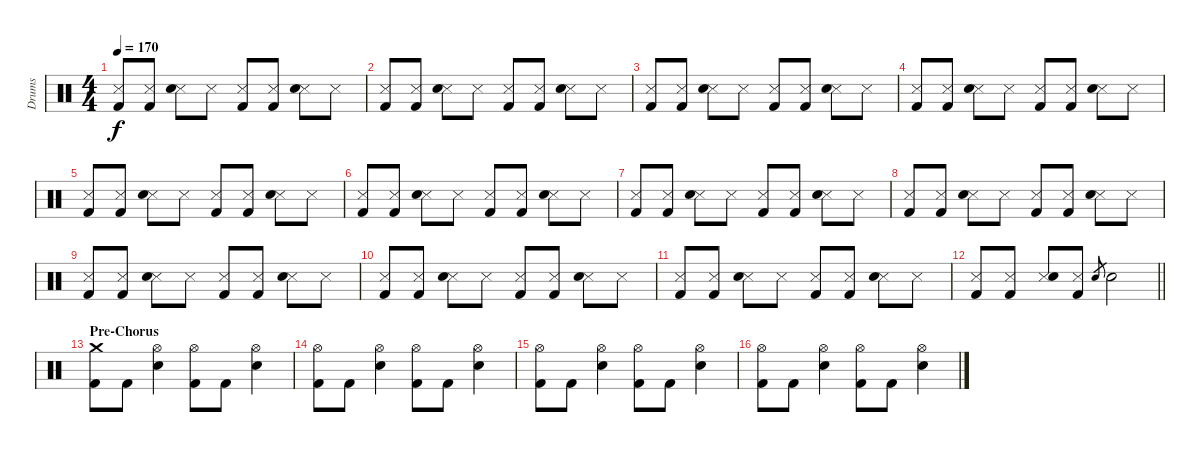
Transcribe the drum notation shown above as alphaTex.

\track ("Drums" "Drums") {instrument percussion}
\staff {score}
\articulation defaults
\ts (4 4)
\tempo 170
\clef neutral
\ks c
("Metronome (hit)" "Kick (hit) 2").8{dy f} ("Metronome (hit)" "Kick (hit) 2").8 ("Metronome (hit)" "Electric Snare (hit)").8 "Metronome (hit)".8 ("Metronome (hit)" "Kick (hit) 2").8 ("Metronome (hit)" "Kick (hit) 2").8 ("Metronome (hit)" "Electric Snare (hit)").8 "Metronome (hit)".8 |
("Metronome (hit)" "Kick (hit) 2").8 ("Metronome (hit)" "Kick (hit) 2").8 ("Metronome (hit)" "Electric Snare (hit)").8 "Metronome (hit)".8 ("Metronome (hit)" "Kick (hit) 2").8 ("Metronome (hit)" "Kick (hit) 2").8 ("Metronome (hit)" "Electric Snare (hit)").8 "Metronome (hit)".8 |
("Metronome (hit)" "Kick (hit) 2").8 ("Metronome (hit)" "Kick (hit) 2").8 ("Metronome (hit)" "Electric Snare (hit)").8 "Metronome (hit)".8 ("Metronome (hit)" "Kick (hit) 2").8 ("Metronome (hit)" "Kick (hit) 2").8 ("Metronome (hit)" "Electric Snare (hit)").8 "Metronome (hit)".8 |
("Metronome (hit)" "Kick (hit) 2").8 ("Metronome (hit)" "Kick (hit) 2").8 ("Metronome (hit)" "Electric Snare (hit)").8 "Metronome (hit)".8 ("Metronome (hit)" "Kick (hit) 2").8 ("Metronome (hit)" "Kick (hit) 2").8 ("Metronome (hit)" "Electric Snare (hit)").8 "Metronome (hit)".8 |
("Metronome (hit)" "Kick (hit) 2").8 ("Metronome (hit)" "Kick (hit) 2").8 ("Metronome (hit)" "Electric Snare (hit)").8 "Metronome (hit)".8 ("Metronome (hit)" "Kick (hit) 2").8 ("Metronome (hit)" "Kick (hit) 2").8 ("Metronome (hit)" "Electric Snare (hit)").8 "Metronome (hit)".8 |
("Metronome (hit)" "Kick (hit) 2").8 ("Metronome (hit)" "Kick (hit) 2").8 ("Metronome (hit)" "Electric Snare (hit)").8 "Metronome (hit)".8 ("Metronome (hit)" "Kick (hit) 2").8 ("Metronome (hit)" "Kick (hit) 2").8 ("Metronome (hit)" "Electric Snare (hit)").8 "Metronome (hit)".8 |
("Metronome (hit)" "Kick (hit) 2").8 ("Metronome (hit)" "Kick (hit) 2").8 ("Metronome (hit)" "Electric Snare (hit)").8 "Metronome (hit)".8 ("Metronome (hit)" "Kick (hit) 2").8 ("Metronome (hit)" "Kick (hit) 2").8 ("Metronome (hit)" "Electric Snare (hit)").8 "Metronome (hit)".8 |
("Metronome (hit)" "Kick (hit) 2").8 ("Metronome (hit)" "Kick (hit) 2").8 ("Metronome (hit)" "Electric Snare (hit)").8 "Metronome (hit)".8 ("Metronome (hit)" "Kick (hit) 2").8 ("Metronome (hit)" "Kick (hit) 2").8 ("Metronome (hit)" "Electric Snare (hit)").8 "Metronome (hit)".8 |
("Metronome (hit)" "Kick (hit) 2").8 ("Metronome (hit)" "Kick (hit) 2").8 ("Metronome (hit)" "Electric Snare (hit)").8 "Metronome (hit)".8 ("Metronome (hit)" "Kick (hit) 2").8 ("Metronome (hit)" "Kick (hit) 2").8 ("Metronome (hit)" "Electric Snare (hit)").8 "Metronome (hit)".8 |
("Metronome (hit)" "Kick (hit) 2").8 ("Metronome (hit)" "Kick (hit) 2").8 ("Metronome (hit)" "Electric Snare (hit)").8 "Metronome (hit)".8 ("Metronome (hit)" "Kick (hit) 2").8 ("Metronome (hit)" "Kick (hit) 2").8 ("Metronome (hit)" "Electric Snare (hit)").8 "Metronome (hit)".8 |
("Metronome (hit)" "Kick (hit) 2").8 ("Metronome (hit)" "Kick (hit) 2").8 ("Metronome (hit)" "Electric Snare (hit)").8 "Metronome (hit)".8 ("Metronome (hit)" "Kick (hit) 2").8 ("Metronome (hit)" "Kick (hit) 2").8 ("Metronome (hit)" "Electric Snare (hit)").8 "Metronome (hit)".8 |
\barLineRight lightlight
("Metronome (hit)" "Kick (hit) 2").8 ("Metronome (hit)" "Kick (hit) 2").8 ("Metronome (hit)" "Electric Snare (hit)").8 ("Metronome (hit)" "Kick (hit) 2").8 "Electric Snare (hit)".8{gr} "Electric Snare (hit)".2 |
\section ("" "Pre-Chorus")
("Crash medium (hit)" "Kick (hit) 2").8 "Kick (hit) 2".8 ("Hi-Hat (open)" "Electric Snare (hit)").4 ("Hi-Hat (open)" "Kick (hit) 2").8 "Kick (hit) 2".8 ("Hi-Hat (open)" "Electric Snare (hit)").4 |
("Hi-Hat (open)" "Kick (hit) 2").8 "Kick (hit) 2".8 ("Hi-Hat (open)" "Electric Snare (hit)").4 ("Hi-Hat (open)" "Kick (hit) 2").8 "Kick (hit) 2".8 ("Hi-Hat (open)" "Electric Snare (hit)").4 |
("Hi-Hat (open)" "Kick (hit) 2").8 "Kick (hit) 2".8 ("Hi-Hat (open)" "Electric Snare (hit)").4 ("Hi-Hat (open)" "Kick (hit) 2").8 "Kick (hit) 2".8 ("Hi-Hat (open)" "Electric Snare (hit)").4 |
("Hi-Hat (open)" "Kick (hit) 2").8 "Kick (hit) 2".8 ("Hi-Hat (open)" "Electric Snare (hit)").4 ("Hi-Hat (open)" "Kick (hit) 2").8 "Kick (hit) 2".8 ("Hi-Hat (open)" "Electric Snare (hit)").4
